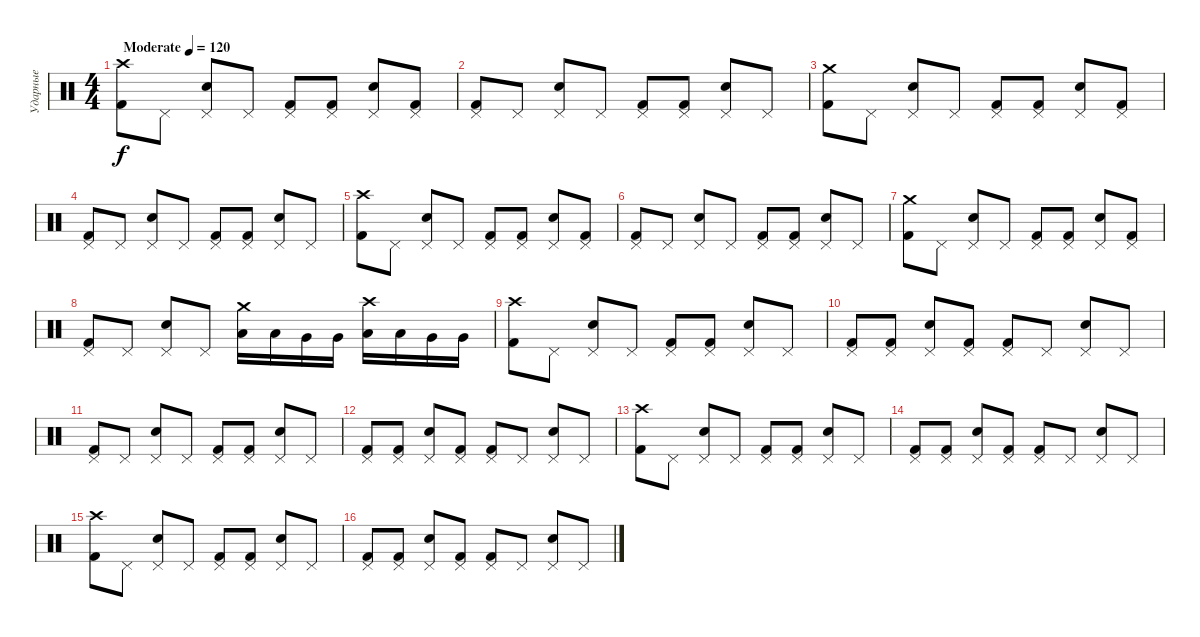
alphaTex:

\track ("Ударные" "Ударные") {instrument percussion}
\staff {score}
\articulation defaults
\ts (4 4)
\tempo (120 "Moderate")
\clef neutral
\ks c
("Crash high (hit)" "Kick (hit) 2").8{dy f} "Pedal Hi-Hat (hit)".8 ("Pedal Hi-Hat (hit)" "Electric Snare (hit)").8 "Pedal Hi-Hat (hit)".8 ("Pedal Hi-Hat (hit)" "Kick (hit) 2").8 ("Pedal Hi-Hat (hit)" "Kick (hit) 2").8 ("Pedal Hi-Hat (hit)" "Electric Snare (hit)").8 ("Pedal Hi-Hat (hit)" "Kick (hit) 2").8 |
("Pedal Hi-Hat (hit)" "Kick (hit) 2").8 "Pedal Hi-Hat (hit)".8 ("Pedal Hi-Hat (hit)" "Electric Snare (hit)").8 "Pedal Hi-Hat (hit)".8 ("Pedal Hi-Hat (hit)" "Kick (hit) 2").8 ("Pedal Hi-Hat (hit)" "Kick (hit) 2").8 ("Pedal Hi-Hat (hit)" "Electric Snare (hit)").8 "Pedal Hi-Hat (hit)".8 |
("Crash medium (hit)" "Kick (hit) 2").8 "Pedal Hi-Hat (hit)".8 ("Pedal Hi-Hat (hit)" "Electric Snare (hit)").8 "Pedal Hi-Hat (hit)".8 ("Pedal Hi-Hat (hit)" "Kick (hit) 2").8 ("Pedal Hi-Hat (hit)" "Kick (hit) 2").8 ("Pedal Hi-Hat (hit)" "Electric Snare (hit)").8 ("Pedal Hi-Hat (hit)" "Kick (hit) 2").8 |
("Pedal Hi-Hat (hit)" "Kick (hit) 2").8 "Pedal Hi-Hat (hit)".8 ("Pedal Hi-Hat (hit)" "Electric Snare (hit)").8 "Pedal Hi-Hat (hit)".8 ("Pedal Hi-Hat (hit)" "Kick (hit) 2").8 ("Pedal Hi-Hat (hit)" "Kick (hit) 2").8 ("Pedal Hi-Hat (hit)" "Electric Snare (hit)").8 "Pedal Hi-Hat (hit)".8 |
("Crash high (hit)" "Kick (hit) 2").8 "Pedal Hi-Hat (hit)".8 ("Pedal Hi-Hat (hit)" "Electric Snare (hit)").8 "Pedal Hi-Hat (hit)".8 ("Pedal Hi-Hat (hit)" "Kick (hit) 2").8 ("Pedal Hi-Hat (hit)" "Kick (hit) 2").8 ("Pedal Hi-Hat (hit)" "Electric Snare (hit)").8 ("Pedal Hi-Hat (hit)" "Kick (hit) 2").8 |
("Pedal Hi-Hat (hit)" "Kick (hit) 2").8 "Pedal Hi-Hat (hit)".8 ("Pedal Hi-Hat (hit)" "Electric Snare (hit)").8 "Pedal Hi-Hat (hit)".8 ("Pedal Hi-Hat (hit)" "Kick (hit) 2").8 ("Pedal Hi-Hat (hit)" "Kick (hit) 2").8 ("Pedal Hi-Hat (hit)" "Electric Snare (hit)").8 "Pedal Hi-Hat (hit)".8 |
("Crash medium (hit)" "Kick (hit) 2").8 "Pedal Hi-Hat (hit)".8 ("Pedal Hi-Hat (hit)" "Electric Snare (hit)").8 "Pedal Hi-Hat (hit)".8 ("Pedal Hi-Hat (hit)" "Kick (hit) 2").8 ("Pedal Hi-Hat (hit)" "Kick (hit) 2").8 ("Pedal Hi-Hat (hit)" "Electric Snare (hit)").8 ("Pedal Hi-Hat (hit)" "Kick (hit) 2").8 |
("Pedal Hi-Hat (hit)" "Kick (hit) 2").8 "Pedal Hi-Hat (hit)".8 ("Pedal Hi-Hat (hit)" "Electric Snare (hit)").8 "Pedal Hi-Hat (hit)".8 ("Low Tom (hit)" "Crash medium (hit)").16 "Low Tom (hit)".16 "Very Low Tom (hit)".16 "Very Low Tom (hit)".16 ("Low Floor Tom (hit)" "Crash high (hit)").16 "Low Floor Tom (hit)".16 "Very Low Tom (hit)".16 "Very Low Tom (hit)".16 |
("Crash high (hit)" "Kick (hit) 2").8 "Pedal Hi-Hat (hit)".8 ("Pedal Hi-Hat (hit)" "Electric Snare (hit)").8 "Pedal Hi-Hat (hit)".8 ("Pedal Hi-Hat (hit)" "Kick (hit) 2").8 ("Pedal Hi-Hat (hit)" "Kick (hit) 2").8 ("Pedal Hi-Hat (hit)" "Electric Snare (hit)").8 "Pedal Hi-Hat (hit)".8 |
("Pedal Hi-Hat (hit)" "Kick (hit) 2").8 ("Pedal Hi-Hat (hit)" "Kick (hit) 2").8 ("Pedal Hi-Hat (hit)" "Electric Snare (hit)").8 ("Pedal Hi-Hat (hit)" "Kick (hit) 2").8 ("Pedal Hi-Hat (hit)" "Kick (hit) 2").8 "Pedal Hi-Hat (hit)".8 ("Pedal Hi-Hat (hit)" "Electric Snare (hit)").8 "Pedal Hi-Hat (hit)".8 |
("Pedal Hi-Hat (hit)" "Kick (hit) 2").8 "Pedal Hi-Hat (hit)".8 ("Pedal Hi-Hat (hit)" "Electric Snare (hit)").8 "Pedal Hi-Hat (hit)".8 ("Pedal Hi-Hat (hit)" "Kick (hit) 2").8 ("Pedal Hi-Hat (hit)" "Kick (hit) 2").8 ("Pedal Hi-Hat (hit)" "Electric Snare (hit)").8 "Pedal Hi-Hat (hit)".8 |
("Pedal Hi-Hat (hit)" "Kick (hit) 2").8 ("Pedal Hi-Hat (hit)" "Kick (hit) 2").8 ("Pedal Hi-Hat (hit)" "Electric Snare (hit)").8 ("Pedal Hi-Hat (hit)" "Kick (hit) 2").8 ("Pedal Hi-Hat (hit)" "Kick (hit) 2").8 "Pedal Hi-Hat (hit)".8 ("Pedal Hi-Hat (hit)" "Electric Snare (hit)").8 "Pedal Hi-Hat (hit)".8 |
("Crash high (hit)" "Kick (hit) 2").8 "Pedal Hi-Hat (hit)".8 ("Pedal Hi-Hat (hit)" "Electric Snare (hit)").8 "Pedal Hi-Hat (hit)".8 ("Pedal Hi-Hat (hit)" "Kick (hit) 2").8 ("Pedal Hi-Hat (hit)" "Kick (hit) 2").8 ("Pedal Hi-Hat (hit)" "Electric Snare (hit)").8 "Pedal Hi-Hat (hit)".8 |
("Pedal Hi-Hat (hit)" "Kick (hit) 2").8 ("Pedal Hi-Hat (hit)" "Kick (hit) 2").8 ("Pedal Hi-Hat (hit)" "Electric Snare (hit)").8 ("Pedal Hi-Hat (hit)" "Kick (hit) 2").8 ("Pedal Hi-Hat (hit)" "Kick (hit) 2").8 "Pedal Hi-Hat (hit)".8 ("Pedal Hi-Hat (hit)" "Electric Snare (hit)").8 "Pedal Hi-Hat (hit)".8 |
("Crash high (hit)" "Kick (hit) 2").8 "Pedal Hi-Hat (hit)".8 ("Pedal Hi-Hat (hit)" "Electric Snare (hit)").8 "Pedal Hi-Hat (hit)".8 ("Pedal Hi-Hat (hit)" "Kick (hit) 2").8 ("Pedal Hi-Hat (hit)" "Kick (hit) 2").8 ("Pedal Hi-Hat (hit)" "Electric Snare (hit)").8 "Pedal Hi-Hat (hit)".8 |
("Pedal Hi-Hat (hit)" "Kick (hit) 2").8 ("Pedal Hi-Hat (hit)" "Kick (hit) 2").8 ("Pedal Hi-Hat (hit)" "Electric Snare (hit)").8 ("Pedal Hi-Hat (hit)" "Kick (hit) 2").8 ("Pedal Hi-Hat (hit)" "Kick (hit) 2").8 "Pedal Hi-Hat (hit)".8 ("Pedal Hi-Hat (hit)" "Electric Snare (hit)").8 "Pedal Hi-Hat (hit)".8
